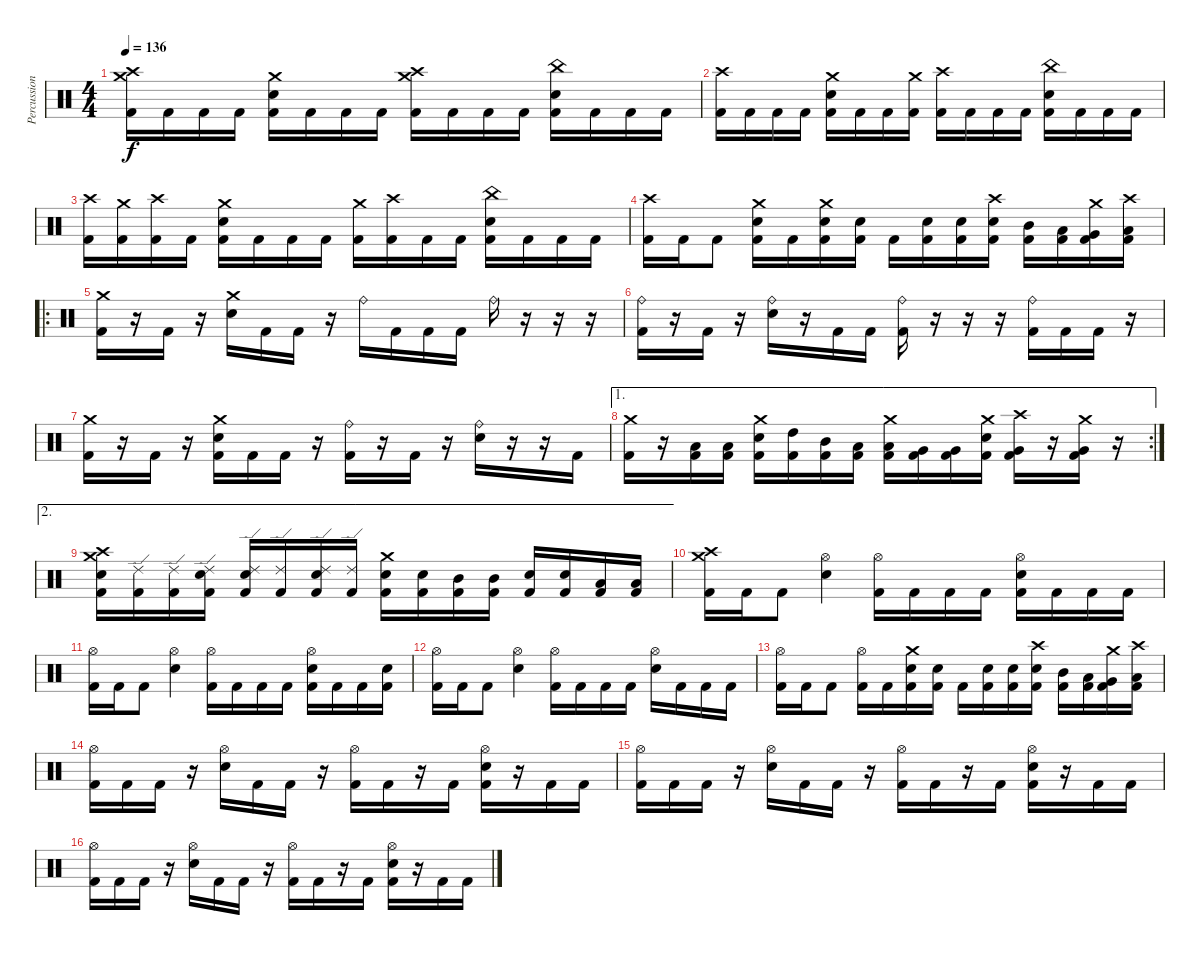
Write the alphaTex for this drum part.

\track ("Percussion" "Percussion") {instrument percussion}
\staff {score}
\articulation defaults
\ts (4 4)
\tempo 136
\clef neutral
\ks c
("Crash medium (hit)" "Crash high (hit)" "Kick (hit) 2").16{dy f} "Kick (hit) 2".16 "Kick (hit) 2".16 "Kick (hit) 2".16 ("Crash medium (hit)" "Electric Snare (hit)" "Kick (hit) 2").16 "Kick (hit) 2".16 "Kick (hit) 2".16 "Kick (hit) 2".16 ("Crash high (hit)" "Crash medium (hit)" "Kick (hit) 2").16 "Kick (hit) 2".16 "Kick (hit) 2".16 "Kick (hit) 2".16 ("China (hit)" "Electric Snare (hit)" "Kick (hit) 2").16 "Kick (hit) 2".16 "Kick (hit) 2".16 "Kick (hit) 2".16 |
("Crash high (hit)" "Kick (hit) 2").16 "Kick (hit) 2".16 "Kick (hit) 2".16 "Kick (hit) 2".16 ("Crash medium (hit)" "Electric Snare (hit)" "Kick (hit) 2").16 "Kick (hit) 2".16 "Kick (hit) 2".16 ("Crash medium (hit)" "Kick (hit) 2").16 ("Crash high (hit)" "Kick (hit) 2").16 "Kick (hit) 2".16 "Kick (hit) 2".16 "Kick (hit) 2".16 ("China (hit)" "Electric Snare (hit)" "Kick (hit) 2").16 "Kick (hit) 2".16 "Kick (hit) 2".16 "Kick (hit) 2".16 |
("Crash high (hit)" "Kick (hit) 2").16 ("Crash medium (hit)" "Kick (hit) 2").16 ("Crash high (hit)" "Kick (hit) 2").16 "Kick (hit) 2".16 ("Crash medium (hit)" "Electric Snare (hit)" "Kick (hit) 2").16 "Kick (hit) 2".16 "Kick (hit) 2".16 "Kick (hit) 2".16 ("Crash medium (hit)" "Kick (hit) 2").16 ("Crash high (hit)" "Kick (hit) 2").16 "Kick (hit) 2".16 "Kick (hit) 2".16 ("China (hit)" "Electric Snare (hit)" "Kick (hit) 2").16 "Kick (hit) 2".16 "Kick (hit) 2".16 "Kick (hit) 2".16 |
("Crash high (hit)" "Kick (hit) 2").16 "Kick (hit) 2".16 "Kick (hit) 2".8 ("Crash medium (hit)" "Electric Snare (hit)" "Kick (hit) 2").16 "Kick (hit) 2".16 ("Crash medium (hit)" "Electric Snare (hit)" "Kick (hit) 2").16 ("Electric Snare (hit)" "Kick (hit) 2").16 "Kick (hit) 2".16 ("Snare (hit) 2" "Kick (hit) 2").16 ("Electric Snare (hit)" "Kick (hit) 2").16 ("Crash high (hit)" "Electric Snare (hit)" "Kick (hit) 2").16 ("Mid Tom (hit)" "Kick (hit) 2").16 ("Low Tom (hit)" "Kick (hit) 2").16 ("Crash medium (hit)" "Very Low Tom (hit)" "Kick (hit) 2").16 ("Crash high (hit)" "Low Floor Tom (hit)" "Kick (hit) 2").16 |
\ro
("Crash medium (hit)" "Kick (hit) 2").16 r.16 "Kick (hit) 2".16 r.16 ("Crash medium (hit)" "Electric Snare (hit)").16 "Kick (hit) 2".16 "Kick (hit) 2".16 r.16 "Ride (bell)".16 "Kick (hit) 2".16 "Kick (hit) 2".16 "Kick (hit) 2".16 "Ride (bell)".16 r.16 r.16 r.16 |
("Ride (bell)" "Kick (hit) 2").16 r.16 "Kick (hit) 2".16 r.16 ("Electric Snare (hit)" "Ride (bell)").16 r.16 "Kick (hit) 2".16 "Kick (hit) 2".16 ("Ride (bell)" "Kick (hit) 2").16 r.16 r.16 r.16 ("Ride (bell)" "Kick (hit) 2").16 "Kick (hit) 2".16 "Kick (hit) 2".16 r.16 |
("Crash medium (hit)" "Kick (hit) 2").16 r.16 "Kick (hit) 2".16 r.16 ("Crash medium (hit)" "Electric Snare (hit)" "Kick (hit) 2").16 "Kick (hit) 2".16 "Kick (hit) 2".16 r.16 ("Ride (bell)" "Kick (hit) 2").16 r.16 "Kick (hit) 2".16 r.16 ("Electric Snare (hit)" "Ride (bell)").16 r.16 r.16 "Kick (hit) 2".16 |
\ae 1
\rc 2
("Crash medium (hit)" "Kick (hit) 2").16 r.16 ("Low Tom (hit)" "Kick (hit) 2").16 ("Low Tom (hit)" "Kick (hit) 2").16 ("Crash medium (hit)" "Electric Snare (hit)" "Kick (hit) 2").16 ("High Tom (hit)" "Kick (hit) 2").16 ("Mid Tom (hit)" "Kick (hit) 2").16 ("Low Tom (hit)" "Kick (hit) 2").16 ("Crash medium (hit)" "Low Tom (hit)" "Kick (hit) 2").16 ("Very Low Tom (hit)" "Kick (hit) 2").16 ("Very Low Tom (hit)" "Kick (hit) 2").16 ("Crash medium (hit)" "Electric Snare (hit)" "Kick (hit) 2").16 ("Crash high (hit)" "Very Low Tom (hit)" "Kick (hit) 2").16 r.16 ("Crash medium (hit)" "Very Low Tom (hit)" "Kick (hit) 2").16 r.16 |
\ae 2
("Crash medium (hit)" "Crash high (hit)" "Electric Snare (hit)" "Kick (hit) 2").16 ("Ride (edge) 2" "Kick (hit) 2").16 ("Ride (edge) 2" "Kick (hit) 2").16 ("Ride (edge) 2" "Electric Snare (hit)" "Kick (hit) 2").16 ("Ride (edge) 2" "Electric Snare (hit)" "Kick (hit) 2").16 ("Ride (edge) 2" "Kick (hit) 2").16 ("Ride (edge) 2" "Electric Snare (hit)" "Kick (hit) 2").16 ("Ride (edge) 2" "Kick (hit) 2").16 ("Crash medium (hit)" "Electric Snare (hit)" "Kick (hit) 2").16 ("Electric Snare (hit)" "Kick (hit) 2").16 ("Mid Tom (hit)" "Kick (hit) 2").16 ("Mid Tom (hit)" "Kick (hit) 2").16 ("Electric Snare (hit)" "Kick (hit) 2").16 ("Electric Snare (hit)" "Kick (hit) 2").16 ("Low Tom (hit)" "Kick (hit) 2").16 ("Low Tom (hit)" "Kick (hit) 2").16 |
("Crash medium (hit)" "Crash high (hit)" "Kick (hit) 2").16 "Kick (hit) 2".16 "Kick (hit) 2".8 ("Hi-Hat (open)" "Electric Snare (hit)").4 ("Hi-Hat (open)" "Kick (hit) 2").16 "Kick (hit) 2".16 "Kick (hit) 2".16 "Kick (hit) 2".16 ("Hi-Hat (open)" "Electric Snare (hit)" "Kick (hit) 2").16 "Kick (hit) 2".16 "Kick (hit) 2".16 "Kick (hit) 2".16 |
("Hi-Hat (open)" "Kick (hit) 2").16 "Kick (hit) 2".16 "Kick (hit) 2".8 ("Hi-Hat (open)" "Electric Snare (hit)").4 ("Hi-Hat (open)" "Kick (hit) 2").16 "Kick (hit) 2".16 "Kick (hit) 2".16 "Kick (hit) 2".16 ("Hi-Hat (open)" "Electric Snare (hit)" "Kick (hit) 2").16 "Kick (hit) 2".16 "Kick (hit) 2".16 ("Electric Snare (hit)" "Kick (hit) 2").16 |
("Hi-Hat (open)" "Kick (hit) 2").16 "Kick (hit) 2".16 "Kick (hit) 2".8 ("Hi-Hat (open)" "Electric Snare (hit)").4 ("Hi-Hat (open)" "Kick (hit) 2").16 "Kick (hit) 2".16 "Kick (hit) 2".16 "Kick (hit) 2".16 ("Hi-Hat (open)" "Electric Snare (hit)").16 "Kick (hit) 2".16 "Kick (hit) 2".16 "Kick (hit) 2".16 |
("Hi-Hat (open)" "Kick (hit) 2").16 "Kick (hit) 2".16 "Kick (hit) 2".8 ("Hi-Hat (open)" "Kick (hit) 2").16 "Kick (hit) 2".16 ("Crash medium (hit)" "Electric Snare (hit)" "Kick (hit) 2").16 ("Electric Snare (hit)" "Kick (hit) 2").16 "Kick (hit) 2".16 ("Snare (hit) 2" "Kick (hit) 2").16 ("Electric Snare (hit)" "Kick (hit) 2").16 ("Crash high (hit)" "Electric Snare (hit)" "Kick (hit) 2").16 ("Mid Tom (hit)" "Kick (hit) 2").16 ("Low Tom (hit)" "Kick (hit) 2").16 ("Crash medium (hit)" "Very Low Tom (hit)" "Kick (hit) 2").16 ("Crash high (hit)" "Low Floor Tom (hit)" "Kick (hit) 2").16 |
("Hi-Hat (open)" "Kick (hit) 2").16 "Kick (hit) 2".16 "Kick (hit) 2".16 r.16 ("Hi-Hat (open)" "Electric Snare (hit)").16 "Kick (hit) 2".16 "Kick (hit) 2".16 r.16 ("Hi-Hat (open)" "Kick (hit) 2").16 "Kick (hit) 2".16 r.16 "Kick (hit) 2".16 ("Hi-Hat (open)" "Electric Snare (hit)" "Kick (hit) 2").16 r.16 "Kick (hit) 2".16 "Kick (hit) 2".16 |
("Hi-Hat (open)" "Kick (hit) 2").16 "Kick (hit) 2".16 "Kick (hit) 2".16 r.16 ("Hi-Hat (open)" "Electric Snare (hit)").16 "Kick (hit) 2".16 "Kick (hit) 2".16 r.16 ("Hi-Hat (open)" "Kick (hit) 2").16 "Kick (hit) 2".16 r.16 "Kick (hit) 2".16 ("Hi-Hat (open)" "Electric Snare (hit)" "Kick (hit) 2").16 r.16 "Kick (hit) 2".16 "Kick (hit) 2".16 |
("Hi-Hat (open)" "Kick (hit) 2").16 "Kick (hit) 2".16 "Kick (hit) 2".16 r.16 ("Hi-Hat (open)" "Electric Snare (hit)").16 "Kick (hit) 2".16 "Kick (hit) 2".16 r.16 ("Hi-Hat (open)" "Kick (hit) 2").16 "Kick (hit) 2".16 r.16 "Kick (hit) 2".16 ("Hi-Hat (open)" "Electric Snare (hit)" "Kick (hit) 2").16 r.16 "Kick (hit) 2".16 "Kick (hit) 2".16
